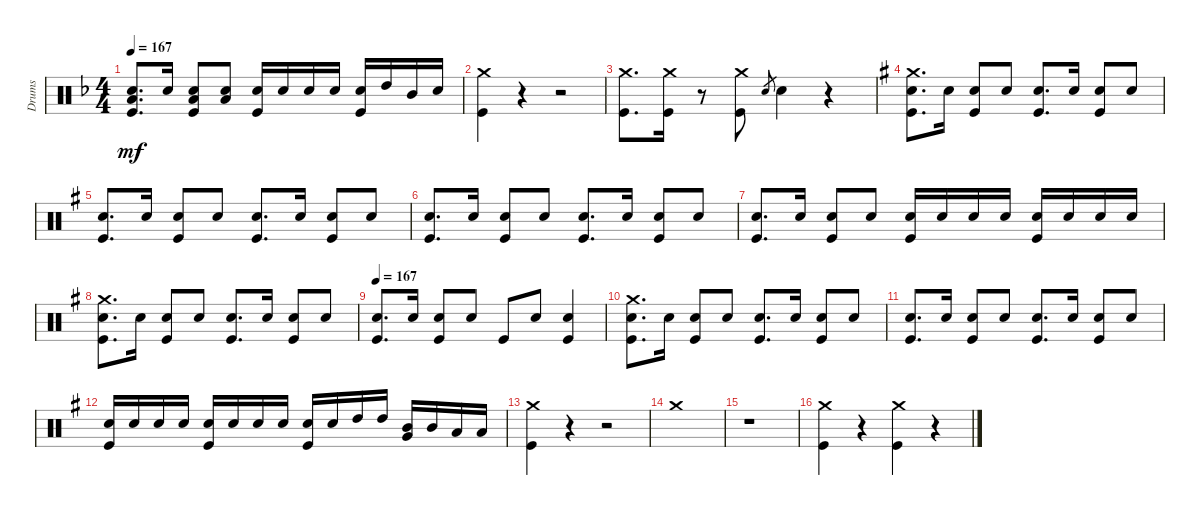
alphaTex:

\track ("Drums" "Drums") {instrument percussion}
\staff {score}
\articulation defaults
\ts (4 4)
\tempo 167
\clef neutral
\ks dminor
("Snare (hit) 2" "Low Tom (hit)" "Kick (hit)").8{d dy mf} "Snare (hit) 2".16 ("Low Tom (hit)" "Snare (hit) 2" "Kick (hit)").8 ("Snare (hit) 2" "Low Tom (hit)").8 ("Snare (hit) 2" "Kick (hit)").16 "Snare (hit) 2".16 "Snare (hit) 2".16 "Snare (hit) 2".16 ("Kick (hit)" "Snare (hit) 2").16 "High Tom (hit)".16 "Mid Tom (hit)".16 "Snare (hit) 2".16 |
("Crash medium (hit)" "Kick (hit)").4 r.4 r.2 |
("Crash medium (hit)" "Kick (hit)").8{d} ("Kick (hit)" "Crash medium (hit)").16 r.8 ("Crash medium (hit)" "Kick (hit)").8 "Snare (hit)".8{gr} "Snare (hit) 2".4 r.4 |
\ks eminor
("Kick (hit)" "Snare (hit) 2" "Crash medium (hit)").8{d} "Snare (hit) 2".16 ("Snare (hit) 2" "Kick (hit)").8 "Snare (hit) 2".8 ("Snare (hit) 2" "Kick (hit)").8{d} "Snare (hit) 2".16 ("Snare (hit) 2" "Kick (hit)").8 "Snare (hit) 2".8 |
("Snare (hit) 2" "Kick (hit)").8{d} "Snare (hit) 2".16 ("Snare (hit) 2" "Kick (hit)").8 "Snare (hit) 2".8 ("Snare (hit) 2" "Kick (hit)").8{d} "Snare (hit) 2".16 ("Snare (hit) 2" "Kick (hit)").8 "Snare (hit) 2".8 |
("Snare (hit) 2" "Kick (hit)").8{d} "Snare (hit) 2".16 ("Snare (hit) 2" "Kick (hit)").8 "Snare (hit) 2".8 ("Snare (hit) 2" "Kick (hit)").8{d} "Snare (hit) 2".16 ("Snare (hit) 2" "Kick (hit)").8 "Snare (hit) 2".8 |
("Snare (hit) 2" "Kick (hit)").8{d} "Snare (hit) 2".16 ("Snare (hit) 2" "Kick (hit)").8 "Snare (hit) 2".8 ("Snare (hit) 2" "Kick (hit)").16 "Snare (hit) 2".16 "Snare (hit) 2".16 "Snare (hit) 2".16 ("Snare (hit) 2" "Kick (hit)").16 "Snare (hit) 2".16 "Snare (hit) 2".16 "Snare (hit) 2".16 |
("Kick (hit)" "Snare (hit) 2" "Crash medium (hit)").8{d} "Snare (hit) 2".16 ("Snare (hit) 2" "Kick (hit)").8 "Snare (hit) 2".8 ("Snare (hit) 2" "Kick (hit)").8{d} "Snare (hit) 2".16 ("Snare (hit) 2" "Kick (hit)").8 "Snare (hit) 2".8 |
\tempo 167
("Snare (hit) 2" "Kick (hit)").8{d} "Snare (hit) 2".16 ("Snare (hit) 2" "Kick (hit)").8 "Snare (hit) 2".8 "Kick (hit)".8 "Snare (hit) 2".8 ("Kick (hit)" "Snare (hit) 2").4 |
("Kick (hit)" "Snare (hit) 2" "Crash medium (hit)").8{d} "Snare (hit) 2".16 ("Snare (hit) 2" "Kick (hit)").8 "Snare (hit) 2".8 ("Snare (hit) 2" "Kick (hit)").8{d} "Snare (hit) 2".16 ("Snare (hit) 2" "Kick (hit)").8 "Snare (hit) 2".8 |
("Snare (hit) 2" "Kick (hit)").8{d} "Snare (hit) 2".16 ("Snare (hit) 2" "Kick (hit)").8 "Snare (hit) 2".8 ("Snare (hit) 2" "Kick (hit)").8{d} "Snare (hit) 2".16 ("Snare (hit) 2" "Kick (hit)").8 "Snare (hit) 2".8 |
("Kick (hit)" "Snare (hit) 2").16 "Snare (hit) 2".16 "Snare (hit) 2".16 "Snare (hit) 2".16 ("Snare (hit) 2" "Kick (hit)").16 "Snare (hit) 2".16 "Snare (hit) 2".16 "Snare (hit) 2".16 ("Kick (hit)" "Snare (hit) 2").16 "Snare (hit) 2".16 "High Tom (hit)".16 "High Tom (hit)".16 ("Mid Tom (hit)" "Very Low Tom (hit)").16 "Mid Tom (hit)".16 "Low Tom (hit)".16 "Low Tom (hit)".16 |
("Kick (hit)" "Crash medium (hit)").4 r.4 r.2 |
"Crash medium (hit)".1 |
r.1 |
("Kick (hit)" "Crash medium (hit)").4 r.4 ("Crash medium (hit)" "Kick (hit)").4 r.4
